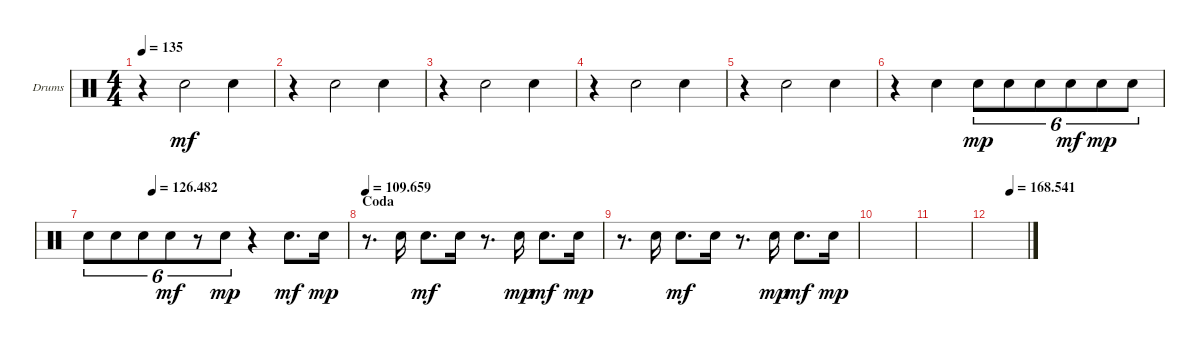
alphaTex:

\bracketExtendMode groupsimilarinstruments
\firstSystemTrackNameOrientation horizontal
\otherSystemsTrackNameOrientation horizontal
\track ("Snare" "Drums") {instrument percussion}
\staff {score}
\articulation defaults
\ts (4 4)
\tempo 135
\clef neutral
\ks c
r.4{dy mf} "Snare (hit) 2".2 "Snare (hit) 2".4 |
r.4 "Snare (hit) 2".2 "Snare (hit) 2".4 |
r.4 "Snare (hit) 2".2 "Snare (hit) 2".4 |
r.4 "Snare (hit) 2".2 "Snare (hit) 2".4 |
r.4 "Snare (hit) 2".2 "Snare (hit) 2".4 |
r.4 "Snare (hit) 2".4 "Snare (hit) 2".8{tu (6 4) dy mp} "Snare (hit) 2".8{tu (6 4)} "Snare (hit) 2".8{tu (6 4)} "Snare (hit) 2".8{tu (6 4) dy mf} "Snare (hit) 2".8{tu (6 4) dy mp} "Snare (hit) 2".8{tu (6 4)} |
\tempo (126.482 0.25)
"Snare (hit) 2".8{tu (6 4)} "Snare (hit) 2".8{tu (6 4)} "Snare (hit) 2".8{tu (6 4)} "Snare (hit) 2".8{tu (6 4) dy mf} r.8{tu (6 4)} "Snare (hit) 2".8{tu (6 4) dy mp} r.4 "Snare (hit) 2".8{d dy mf} "Snare (hit) 2".16{dy mp} |
\section ("" "Coda")
\tempo
109.659 r.8{d} "Snare (hit) 2".16 "Snare (hit) 2".8{d dy mf} "Snare (hit) 2".16 r.8{d} "Snare (hit) 2".16{dy mp} "Snare (hit) 2".8{d dy mf} "Snare (hit) 2".16{dy mp} |
r.8{d} "Snare (hit) 2".16 "Snare (hit) 2".8{d dy mf} "Snare (hit) 2".16 r.8{d} "Snare (hit) 2".16{dy mp} "Snare (hit) 2".8{d dy mf} "Snare (hit) 2".16{dy mp} |
|
|
\tempo (168.541 0.53125)
